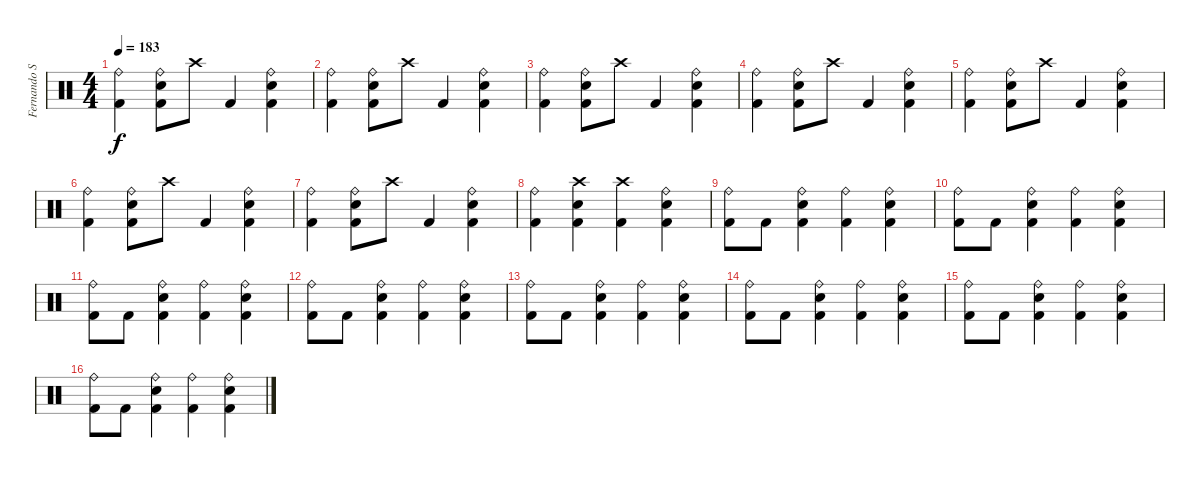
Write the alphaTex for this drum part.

\track ("Fernando Scarcella" "Fernando S") {instrument percussion}
\staff {score}
\articulation defaults
\ts (4 4)
\tempo 183
\clef neutral
\ks c
("Ride (bell)" "Kick (hit) 2").4{dy f} ("Ride (bell)" "Kick (hit) 2" "Snare (hit) 2").8 "Crash high (hit)".8 "Kick (hit) 2".4 ("Ride (bell)" "Kick (hit) 2" "Snare (hit) 2").4 |
("Ride (bell)" "Kick (hit) 2").4 ("Ride (bell)" "Kick (hit) 2" "Snare (hit) 2").8 "Crash high (hit)".8 "Kick (hit) 2".4 ("Ride (bell)" "Kick (hit) 2" "Snare (hit) 2").4 |
("Ride (bell)" "Kick (hit) 2").4 ("Ride (bell)" "Kick (hit) 2" "Snare (hit) 2").8 "Crash high (hit)".8 "Kick (hit) 2".4 ("Ride (bell)" "Kick (hit) 2" "Snare (hit) 2").4 |
("Ride (bell)" "Kick (hit) 2").4 ("Ride (bell)" "Kick (hit) 2" "Snare (hit) 2").8 "Crash high (hit)".8 "Kick (hit) 2".4 ("Ride (bell)" "Kick (hit) 2" "Snare (hit) 2").4 |
("Ride (bell)" "Kick (hit) 2").4 ("Ride (bell)" "Kick (hit) 2" "Snare (hit) 2").8 "Crash high (hit)".8 "Kick (hit) 2".4 ("Ride (bell)" "Kick (hit) 2" "Snare (hit) 2").4 |
("Ride (bell)" "Kick (hit) 2").4 ("Ride (bell)" "Kick (hit) 2" "Snare (hit) 2").8 "Crash high (hit)".8 "Kick (hit) 2".4 ("Ride (bell)" "Kick (hit) 2" "Snare (hit) 2").4 |
("Ride (bell)" "Kick (hit) 2").4 ("Ride (bell)" "Kick (hit) 2" "Snare (hit) 2").8 "Crash high (hit)".8 "Kick (hit) 2".4 ("Ride (bell)" "Kick (hit) 2" "Snare (hit) 2").4 |
("Ride (bell)" "Kick (hit) 2").4 ("Crash high (hit)" "Kick (hit) 2" "Snare (hit) 2").4 ("Crash high (hit)" "Kick (hit) 2").4 ("Ride (bell)" "Kick (hit) 2" "Snare (hit) 2").4 |
("Ride (bell)" "Kick (hit) 2").8 "Kick (hit) 2".8 ("Ride (bell)" "Kick (hit) 2" "Snare (hit) 2").4 ("Ride (bell)" "Kick (hit) 2").4 ("Ride (bell)" "Kick (hit) 2" "Snare (hit) 2").4 |
("Ride (bell)" "Kick (hit) 2").8 "Kick (hit) 2".8 ("Ride (bell)" "Kick (hit) 2" "Snare (hit) 2").4 ("Ride (bell)" "Kick (hit) 2").4 ("Ride (bell)" "Kick (hit) 2" "Snare (hit) 2").4 |
("Ride (bell)" "Kick (hit) 2").8 "Kick (hit) 2".8 ("Ride (bell)" "Kick (hit) 2" "Snare (hit) 2").4 ("Ride (bell)" "Kick (hit) 2").4 ("Ride (bell)" "Kick (hit) 2" "Snare (hit) 2").4 |
("Ride (bell)" "Kick (hit) 2").8 "Kick (hit) 2".8 ("Ride (bell)" "Kick (hit) 2" "Snare (hit) 2").4 ("Ride (bell)" "Kick (hit) 2").4 ("Ride (bell)" "Kick (hit) 2" "Snare (hit) 2").4 |
("Ride (bell)" "Kick (hit) 2").8 "Kick (hit) 2".8 ("Ride (bell)" "Kick (hit) 2" "Snare (hit) 2").4 ("Ride (bell)" "Kick (hit) 2").4 ("Ride (bell)" "Kick (hit) 2" "Snare (hit) 2").4 |
("Ride (bell)" "Kick (hit) 2").8 "Kick (hit) 2".8 ("Ride (bell)" "Kick (hit) 2" "Snare (hit) 2").4 ("Ride (bell)" "Kick (hit) 2").4 ("Ride (bell)" "Kick (hit) 2" "Snare (hit) 2").4 |
("Ride (bell)" "Kick (hit) 2").8 "Kick (hit) 2".8 ("Ride (bell)" "Kick (hit) 2" "Snare (hit) 2").4 ("Ride (bell)" "Kick (hit) 2").4 ("Ride (bell)" "Kick (hit) 2" "Snare (hit) 2").4 |
("Ride (bell)" "Kick (hit) 2").8 "Kick (hit) 2".8 ("Ride (bell)" "Kick (hit) 2" "Snare (hit) 2").4 ("Ride (bell)" "Kick (hit) 2").4 ("Ride (bell)" "Kick (hit) 2" "Snare (hit) 2").4
